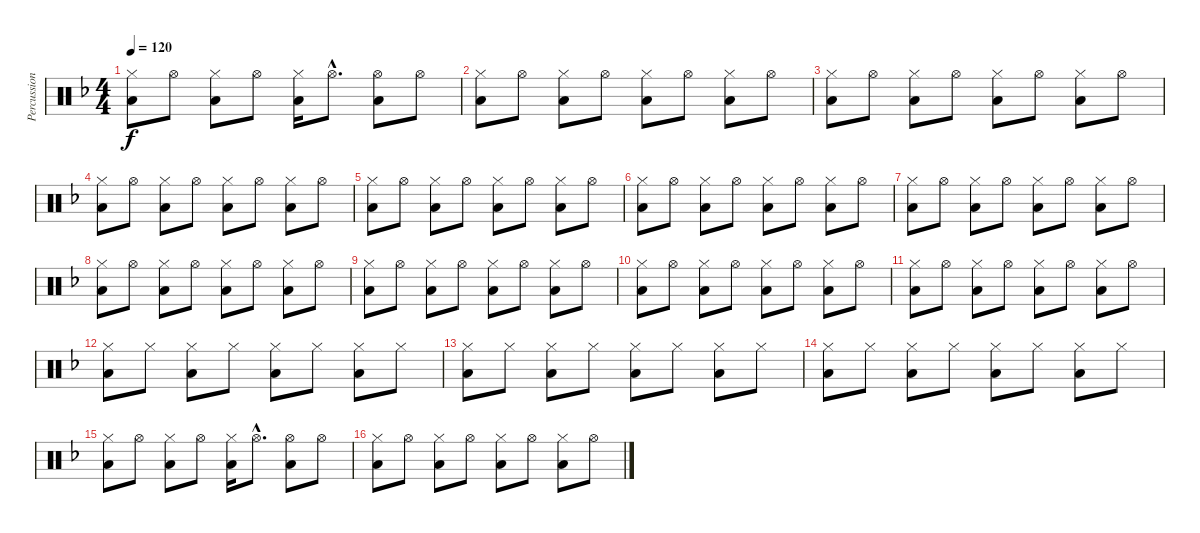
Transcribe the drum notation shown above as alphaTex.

\track ("Percussion" "Percussion") {instrument percussion}
\staff {score}
\articulation defaults
\ts (4 4)
\tempo 120
\clef neutral
\ks f
("Hi-Hat (closed)" "Low Floor Tom (hit)").8{dy f} "Hi-Hat (open)".8 ("Hi-Hat (closed)" "Low Floor Tom (hit)").8 "Hi-Hat (open)".8 ("Hi-Hat (closed)" "Low Floor Tom (hit)").16 "Hi-Hat (open)"{hac}.8{d} ("Hi-Hat (open)" "Low Floor Tom (hit)").8 "Hi-Hat (open)".8 |
("Hi-Hat (closed)" "Low Floor Tom (hit)").8 "Hi-Hat (open)".8 ("Hi-Hat (closed)" "Low Floor Tom (hit)").8 "Hi-Hat (open)".8 ("Hi-Hat (closed)" "Low Floor Tom (hit)").8 "Hi-Hat (open)".8 ("Hi-Hat (closed)" "Low Floor Tom (hit)").8 "Hi-Hat (open)".8 |
("Hi-Hat (closed)" "Low Floor Tom (hit)").8 "Hi-Hat (open)".8 ("Hi-Hat (closed)" "Low Floor Tom (hit)").8 "Hi-Hat (open)".8 ("Hi-Hat (closed)" "Low Floor Tom (hit)").8 "Hi-Hat (open)".8 ("Hi-Hat (closed)" "Low Floor Tom (hit)").8 "Hi-Hat (open)".8 |
("Hi-Hat (closed)" "Low Floor Tom (hit)").8 "Hi-Hat (open)".8 ("Hi-Hat (closed)" "Low Floor Tom (hit)").8 "Hi-Hat (open)".8 ("Hi-Hat (closed)" "Low Floor Tom (hit)").8 "Hi-Hat (open)".8 ("Hi-Hat (closed)" "Low Floor Tom (hit)").8 "Hi-Hat (open)".8 |
("Hi-Hat (closed)" "Low Floor Tom (hit)").8 "Hi-Hat (open)".8 ("Hi-Hat (closed)" "Low Floor Tom (hit)").8 "Hi-Hat (open)".8 ("Hi-Hat (closed)" "Low Floor Tom (hit)").8 "Hi-Hat (open)".8 ("Hi-Hat (closed)" "Low Floor Tom (hit)").8 "Hi-Hat (open)".8 |
("Hi-Hat (closed)" "Low Floor Tom (hit)").8 "Hi-Hat (open)".8 ("Hi-Hat (closed)" "Low Floor Tom (hit)").8 "Hi-Hat (open)".8 ("Hi-Hat (closed)" "Low Floor Tom (hit)").8 "Hi-Hat (open)".8 ("Hi-Hat (closed)" "Low Floor Tom (hit)").8 "Hi-Hat (open)".8 |
("Hi-Hat (closed)" "Low Floor Tom (hit)").8 "Hi-Hat (open)".8 ("Hi-Hat (closed)" "Low Floor Tom (hit)").8 "Hi-Hat (open)".8 ("Hi-Hat (closed)" "Low Floor Tom (hit)").8 "Hi-Hat (open)".8 ("Hi-Hat (closed)" "Low Floor Tom (hit)").8 "Hi-Hat (open)".8 |
("Hi-Hat (closed)" "Low Floor Tom (hit)").8 "Hi-Hat (open)".8 ("Hi-Hat (closed)" "Low Floor Tom (hit)").8 "Hi-Hat (open)".8 ("Hi-Hat (closed)" "Low Floor Tom (hit)").8 "Hi-Hat (open)".8 ("Hi-Hat (closed)" "Low Floor Tom (hit)").8 "Hi-Hat (open)".8 |
("Hi-Hat (closed)" "Low Floor Tom (hit)").8 "Hi-Hat (open)".8 ("Hi-Hat (closed)" "Low Floor Tom (hit)").8 "Hi-Hat (open)".8 ("Hi-Hat (closed)" "Low Floor Tom (hit)").8 "Hi-Hat (open)".8 ("Hi-Hat (closed)" "Low Floor Tom (hit)").8 "Hi-Hat (open)".8 |
("Hi-Hat (closed)" "Low Floor Tom (hit)").8 "Hi-Hat (open)".8 ("Hi-Hat (closed)" "Low Floor Tom (hit)").8 "Hi-Hat (open)".8 ("Hi-Hat (closed)" "Low Floor Tom (hit)").8 "Hi-Hat (open)".8 ("Hi-Hat (closed)" "Low Floor Tom (hit)").8 "Hi-Hat (open)".8 |
("Hi-Hat (closed)" "Low Floor Tom (hit)").8 "Hi-Hat (open)".8 ("Hi-Hat (closed)" "Low Floor Tom (hit)").8 "Hi-Hat (open)".8 ("Hi-Hat (closed)" "Low Floor Tom (hit)").8 "Hi-Hat (open)".8 ("Hi-Hat (closed)" "Low Floor Tom (hit)").8 "Hi-Hat (open)".8 |
("Hi-Hat (closed)" "Low Floor Tom (hit)").8 "Hi-Hat (closed)".8 ("Hi-Hat (closed)" "Low Floor Tom (hit)").8 "Hi-Hat (closed)".8 ("Hi-Hat (closed)" "Low Floor Tom (hit)").8 "Hi-Hat (closed)".8 ("Hi-Hat (closed)" "Low Floor Tom (hit)").8 "Hi-Hat (closed)".8 |
("Hi-Hat (closed)" "Low Floor Tom (hit)").8 "Hi-Hat (closed)".8 ("Hi-Hat (closed)" "Low Floor Tom (hit)").8 "Hi-Hat (closed)".8 ("Hi-Hat (closed)" "Low Floor Tom (hit)").8 "Hi-Hat (closed)".8 ("Hi-Hat (closed)" "Low Floor Tom (hit)").8 "Hi-Hat (closed)".8 |
("Hi-Hat (closed)" "Low Floor Tom (hit)").8 "Hi-Hat (closed)".8 ("Hi-Hat (closed)" "Low Floor Tom (hit)").8 "Hi-Hat (closed)".8 ("Hi-Hat (closed)" "Low Floor Tom (hit)").8 "Hi-Hat (closed)".8 ("Hi-Hat (closed)" "Low Floor Tom (hit)").8 "Hi-Hat (closed)".8 |
("Hi-Hat (closed)" "Low Floor Tom (hit)").8 "Hi-Hat (open)".8 ("Hi-Hat (closed)" "Low Floor Tom (hit)").8 "Hi-Hat (open)".8 ("Hi-Hat (closed)" "Low Floor Tom (hit)").16 "Hi-Hat (open)"{hac}.8{d} ("Hi-Hat (open)" "Low Floor Tom (hit)").8 "Hi-Hat (open)".8 |
("Hi-Hat (closed)" "Low Floor Tom (hit)").8 "Hi-Hat (open)".8 ("Hi-Hat (closed)" "Low Floor Tom (hit)").8 "Hi-Hat (open)".8 ("Hi-Hat (closed)" "Low Floor Tom (hit)").8 "Hi-Hat (open)".8 ("Hi-Hat (closed)" "Low Floor Tom (hit)").8 "Hi-Hat (open)".8
